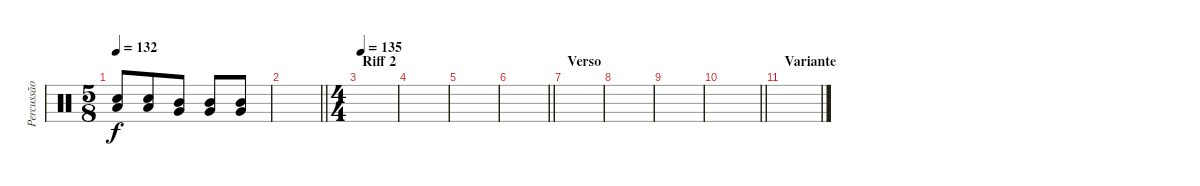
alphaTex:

\track ("Percussão" "Percussão") {instrument percussion}
\staff {score}
\articulation defaults
\ts (5 8)
\tempo 132
\clef neutral
\ks c
("Electric Snare (hit)" "Low Tom (hit)").8{dy f} ("Electric Snare (hit)" "Low Tom (hit)").8 ("Mid Tom (hit)" "Very Low Tom (hit)").8 ("Mid Tom (hit)" "Very Low Tom (hit)").8 ("Mid Tom (hit)" "Very Low Tom (hit)").8 |
\barLineRight lightlight
|
\ts (4 4)
\section ("" "Riff 2")
\tempo 135
|
|
|
\barLineRight lightlight
|
\section ("" "Verso")
|
|
|
\barLineRight lightlight
|
\section ("" "Variante")
